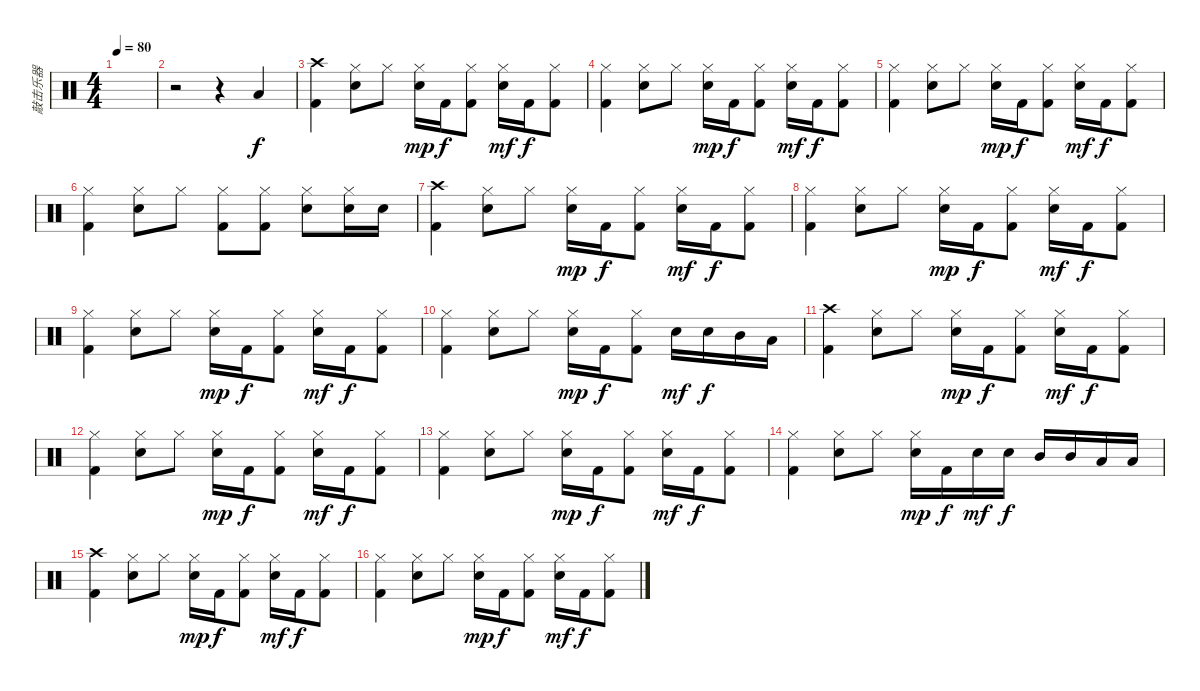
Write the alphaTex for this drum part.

\track ("敲击乐器" "敲击乐器") {instrument percussion}
\staff {score}
\articulation defaults
\ts (4 4)
\tempo 80
\clef neutral
\ks c
|
r.2 r.4 "Low Tom (hit)".4 |
("Crash high (hit)" "Kick (hit) 2").4 ("Hi-Hat (closed)" "Snare (hit) 2").8 "Hi-Hat (closed)".8 ("Hi-Hat (closed)" "Snare (hit) 2").16{dy mp} "Kick (hit) 2".16{dy f} ("Hi-Hat (closed)" "Kick (hit) 2").8 ("Hi-Hat (closed)" "Snare (hit) 2").16{dy mf} "Kick (hit) 2".16{dy f} ("Hi-Hat (closed)" "Kick (hit) 2").8 |
("Hi-Hat (closed)" "Kick (hit) 2").4 ("Hi-Hat (closed)" "Snare (hit) 2").8 "Hi-Hat (closed)".8 ("Hi-Hat (closed)" "Snare (hit) 2").16{dy mp} "Kick (hit) 2".16{dy f} ("Hi-Hat (closed)" "Kick (hit) 2").8 ("Hi-Hat (closed)" "Snare (hit) 2").16{dy mf} "Kick (hit) 2".16{dy f} ("Hi-Hat (closed)" "Kick (hit) 2").8 |
("Hi-Hat (closed)" "Kick (hit) 2").4 ("Hi-Hat (closed)" "Snare (hit) 2").8 "Hi-Hat (closed)".8 ("Hi-Hat (closed)" "Snare (hit) 2").16{dy mp} "Kick (hit) 2".16{dy f} ("Hi-Hat (closed)" "Kick (hit) 2").8 ("Hi-Hat (closed)" "Snare (hit) 2").16{dy mf} "Kick (hit) 2".16{dy f} ("Hi-Hat (closed)" "Kick (hit) 2").8 |
("Hi-Hat (closed)" "Kick (hit) 2").4 ("Hi-Hat (closed)" "Snare (hit) 2").8 "Hi-Hat (closed)".8 ("Hi-Hat (closed)" "Kick (hit) 2").8 ("Hi-Hat (closed)" "Kick (hit) 2").8 ("Hi-Hat (closed)" "Snare (hit) 2").8 ("Hi-Hat (closed)" "Snare (hit) 2").16 "Snare (hit) 2".16 |
("Crash high (hit)" "Kick (hit) 2").4 ("Hi-Hat (closed)" "Snare (hit) 2").8 "Hi-Hat (closed)".8 ("Hi-Hat (closed)" "Snare (hit) 2").16{dy mp} "Kick (hit) 2".16{dy f} ("Hi-Hat (closed)" "Kick (hit) 2").8 ("Hi-Hat (closed)" "Snare (hit) 2").16{dy mf} "Kick (hit) 2".16{dy f} ("Hi-Hat (closed)" "Kick (hit) 2").8 |
("Hi-Hat (closed)" "Kick (hit) 2").4 ("Hi-Hat (closed)" "Snare (hit) 2").8 "Hi-Hat (closed)".8 ("Hi-Hat (closed)" "Snare (hit) 2").16{dy mp} "Kick (hit) 2".16{dy f} ("Hi-Hat (closed)" "Kick (hit) 2").8 ("Hi-Hat (closed)" "Snare (hit) 2").16{dy mf} "Kick (hit) 2".16{dy f} ("Hi-Hat (closed)" "Kick (hit) 2").8 |
("Hi-Hat (closed)" "Kick (hit) 2").4 ("Hi-Hat (closed)" "Snare (hit) 2").8 "Hi-Hat (closed)".8 ("Hi-Hat (closed)" "Snare (hit) 2").16{dy mp} "Kick (hit) 2".16{dy f} ("Hi-Hat (closed)" "Kick (hit) 2").8 ("Hi-Hat (closed)" "Snare (hit) 2").16{dy mf} "Kick (hit) 2".16{dy f} ("Hi-Hat (closed)" "Kick (hit) 2").8 |
("Hi-Hat (closed)" "Kick (hit) 2").4 ("Hi-Hat (closed)" "Snare (hit) 2").8 "Hi-Hat (closed)".8 ("Hi-Hat (closed)" "Snare (hit) 2").16{dy mp} "Kick (hit) 2".16{dy f} ("Hi-Hat (closed)" "Kick (hit) 2").8 "Snare (hit) 2".16{dy mf} "Snare (hit) 2".16{dy f} "Mid Tom (hit)".16 "Low Tom (hit)".16 |
("Crash high (hit)" "Kick (hit) 2").4 ("Hi-Hat (closed)" "Snare (hit) 2").8 "Hi-Hat (closed)".8 ("Hi-Hat (closed)" "Snare (hit) 2").16{dy mp} "Kick (hit) 2".16{dy f} ("Hi-Hat (closed)" "Kick (hit) 2").8 ("Hi-Hat (closed)" "Snare (hit) 2").16{dy mf} "Kick (hit) 2".16{dy f} ("Hi-Hat (closed)" "Kick (hit) 2").8 |
("Hi-Hat (closed)" "Kick (hit) 2").4 ("Hi-Hat (closed)" "Snare (hit) 2").8 "Hi-Hat (closed)".8 ("Hi-Hat (closed)" "Snare (hit) 2").16{dy mp} "Kick (hit) 2".16{dy f} ("Hi-Hat (closed)" "Kick (hit) 2").8 ("Hi-Hat (closed)" "Snare (hit) 2").16{dy mf} "Kick (hit) 2".16{dy f} ("Hi-Hat (closed)" "Kick (hit) 2").8 |
("Hi-Hat (closed)" "Kick (hit) 2").4 ("Hi-Hat (closed)" "Snare (hit) 2").8 "Hi-Hat (closed)".8 ("Hi-Hat (closed)" "Snare (hit) 2").16{dy mp} "Kick (hit) 2".16{dy f} ("Hi-Hat (closed)" "Kick (hit) 2").8 ("Hi-Hat (closed)" "Snare (hit) 2").16{dy mf} "Kick (hit) 2".16{dy f} ("Hi-Hat (closed)" "Kick (hit) 2").8 |
("Hi-Hat (closed)" "Kick (hit) 2").4 ("Hi-Hat (closed)" "Snare (hit) 2").8 "Hi-Hat (closed)".8 ("Hi-Hat (closed)" "Snare (hit) 2").16{dy mp} "Kick (hit) 2".16{dy f} "Snare (hit) 2".16{dy mf} "Snare (hit) 2".16{dy f} "Mid Tom (hit)".16 "Mid Tom (hit)".16 "Low Tom (hit)".16 "Low Tom (hit)".16 |
("Crash high (hit)" "Kick (hit) 2").4 ("Hi-Hat (closed)" "Snare (hit) 2").8 "Hi-Hat (closed)".8 ("Hi-Hat (closed)" "Snare (hit) 2").16{dy mp} "Kick (hit) 2".16{dy f} ("Hi-Hat (closed)" "Kick (hit) 2").8 ("Hi-Hat (closed)" "Snare (hit) 2").16{dy mf} "Kick (hit) 2".16{dy f} ("Hi-Hat (closed)" "Kick (hit) 2").8 |
("Hi-Hat (closed)" "Kick (hit) 2").4 ("Hi-Hat (closed)" "Snare (hit) 2").8 "Hi-Hat (closed)".8 ("Hi-Hat (closed)" "Snare (hit) 2").16{dy mp} "Kick (hit) 2".16{dy f} ("Hi-Hat (closed)" "Kick (hit) 2").8 ("Hi-Hat (closed)" "Snare (hit) 2").16{dy mf} "Kick (hit) 2".16{dy f} ("Hi-Hat (closed)" "Kick (hit) 2").8
